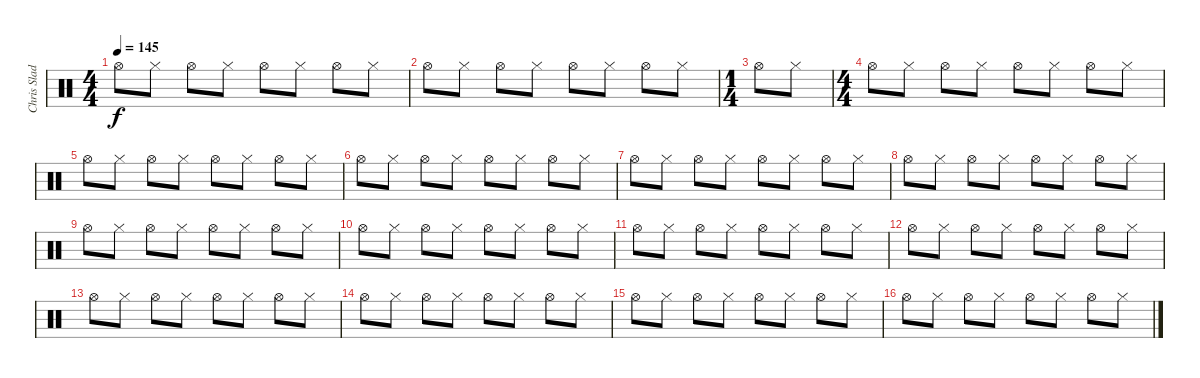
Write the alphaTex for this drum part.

\track ("Chris Slade" "Chris Slad") {instrument percussion}
\staff {score}
\articulation defaults
\ts (4 4)
\tempo 145
\clef neutral
\ks c "Hi-Hat (open)".8{dy f} "Hi-Hat (closed)".8 "Hi-Hat (open)".8 "Hi-Hat (closed)".8 "Hi-Hat (open)".8 "Hi-Hat (closed)".8 "Hi-Hat (open)".8 "Hi-Hat (closed)".8
|
"Hi-Hat (open)".8 "Hi-Hat (closed)".8 "Hi-Hat (open)".8 "Hi-Hat (closed)".8 "Hi-Hat (open)".8 "Hi-Hat (closed)".8 "Hi-Hat (open)".8 "Hi-Hat (closed)".8 |
\ts (1 4)
"Hi-Hat (open)".8 "Hi-Hat (closed)".8 |
\ts (4 4)
"Hi-Hat (open)".8 "Hi-Hat (closed)".8 "Hi-Hat (open)".8 "Hi-Hat (closed)".8 "Hi-Hat (open)".8 "Hi-Hat (closed)".8 "Hi-Hat (open)".8 "Hi-Hat (closed)".8 |
"Hi-Hat (open)".8 "Hi-Hat (closed)".8 "Hi-Hat (open)".8 "Hi-Hat (closed)".8 "Hi-Hat (open)".8 "Hi-Hat (closed)".8 "Hi-Hat (open)".8 "Hi-Hat (closed)".8 |
"Hi-Hat (open)".8 "Hi-Hat (closed)".8 "Hi-Hat (open)".8 "Hi-Hat (closed)".8 "Hi-Hat (open)".8 "Hi-Hat (closed)".8 "Hi-Hat (open)".8 "Hi-Hat (closed)".8 |
"Hi-Hat (open)".8 "Hi-Hat (closed)".8 "Hi-Hat (open)".8 "Hi-Hat (closed)".8 "Hi-Hat (open)".8 "Hi-Hat (closed)".8 "Hi-Hat (open)".8 "Hi-Hat (closed)".8 |
"Hi-Hat (open)".8 "Hi-Hat (closed)".8 "Hi-Hat (open)".8 "Hi-Hat (closed)".8 "Hi-Hat (open)".8 "Hi-Hat (closed)".8 "Hi-Hat (open)".8 "Hi-Hat (closed)".8 |
"Hi-Hat (open)".8 "Hi-Hat (closed)".8 "Hi-Hat (open)".8 "Hi-Hat (closed)".8 "Hi-Hat (open)".8 "Hi-Hat (closed)".8 "Hi-Hat (open)".8 "Hi-Hat (closed)".8 |
"Hi-Hat (open)".8 "Hi-Hat (closed)".8 "Hi-Hat (open)".8 "Hi-Hat (closed)".8 "Hi-Hat (open)".8 "Hi-Hat (closed)".8 "Hi-Hat (open)".8 "Hi-Hat (closed)".8 |
"Hi-Hat (open)".8 "Hi-Hat (closed)".8 "Hi-Hat (open)".8 "Hi-Hat (closed)".8 "Hi-Hat (open)".8 "Hi-Hat (closed)".8 "Hi-Hat (open)".8 "Hi-Hat (closed)".8 |
"Hi-Hat (open)".8 "Hi-Hat (closed)".8 "Hi-Hat (open)".8 "Hi-Hat (closed)".8 "Hi-Hat (open)".8 "Hi-Hat (closed)".8 "Hi-Hat (open)".8 "Hi-Hat (closed)".8 |
"Hi-Hat (open)".8 "Hi-Hat (closed)".8 "Hi-Hat (open)".8 "Hi-Hat (closed)".8 "Hi-Hat (open)".8 "Hi-Hat (closed)".8 "Hi-Hat (open)".8 "Hi-Hat (closed)".8 |
"Hi-Hat (open)".8 "Hi-Hat (closed)".8 "Hi-Hat (open)".8 "Hi-Hat (closed)".8 "Hi-Hat (open)".8 "Hi-Hat (closed)".8 "Hi-Hat (open)".8 "Hi-Hat (closed)".8 |
"Hi-Hat (open)".8 "Hi-Hat (closed)".8 "Hi-Hat (open)".8 "Hi-Hat (closed)".8 "Hi-Hat (open)".8 "Hi-Hat (closed)".8 "Hi-Hat (open)".8 "Hi-Hat (closed)".8 |
"Hi-Hat (open)".8 "Hi-Hat (closed)".8 "Hi-Hat (open)".8 "Hi-Hat (closed)".8 "Hi-Hat (open)".8 "Hi-Hat (closed)".8 "Hi-Hat (open)".8 "Hi-Hat (closed)".8
